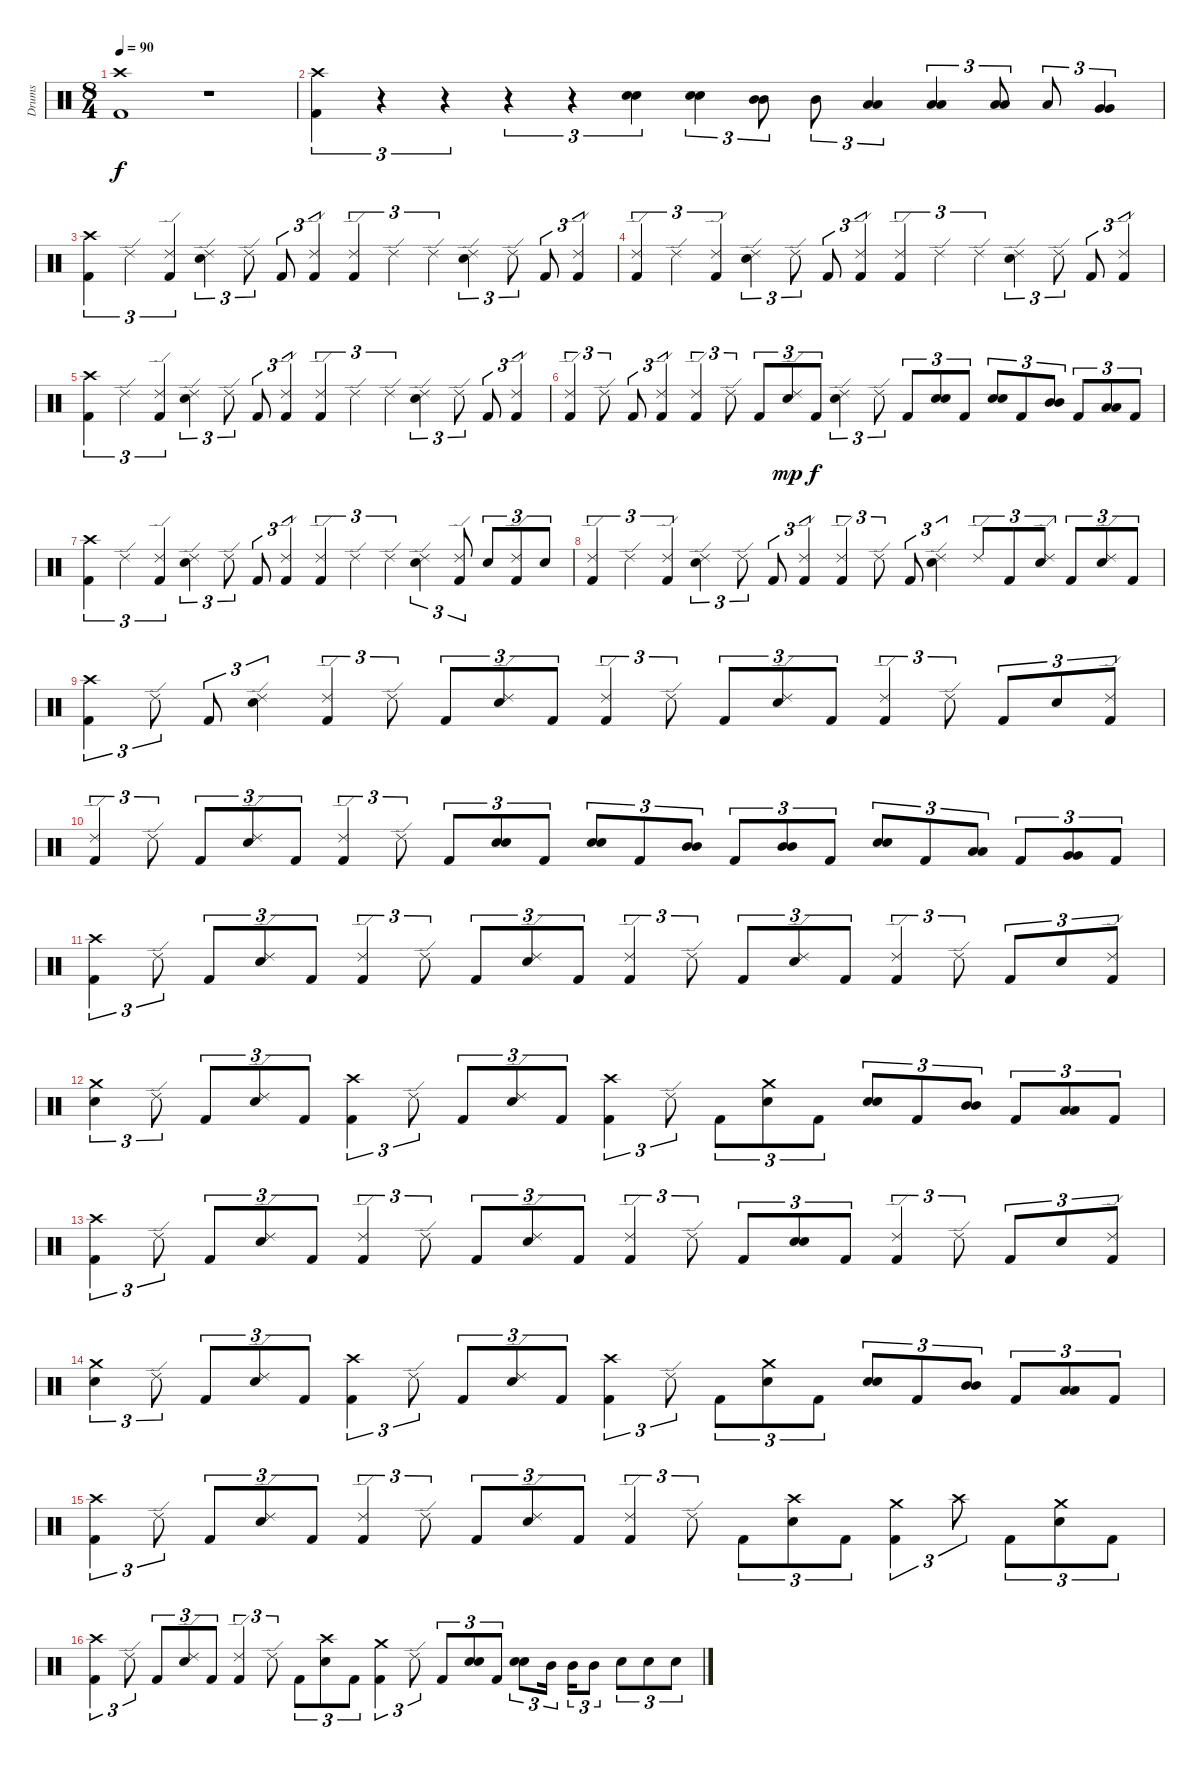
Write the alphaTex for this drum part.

\track ("Drums" "Drums") {instrument percussion}
\staff {score}
\articulation defaults
\ts (8 4)
\tempo 90
\clef neutral
\ks c
("Crash high (hit)" "Kick (hit) 2").1{dy f} r.1 |
("Crash high (hit)" "Kick (hit) 2").4{tu (3 2)} r.4{tu (3 2)} r.4{tu (3 2)} r.4{tu (3 2)} r.4{tu (3 2)} ("Electric Snare (hit)" "Electric Snare (hit)").4{tu (3 2) bu 60} ("Electric Snare (hit)" "Electric Snare (hit)").4{tu (3 2) bu 60} ("Mid Tom (hit)" "Mid Tom (hit)").8{tu (3 2) bu 60} "Mid Tom (hit)".8{tu (3 2)} ("Low Tom (hit)" "Low Tom (hit)").4{tu (3 2) bu 60} ("Low Tom (hit)" "Low Tom (hit)").4{tu (3 2) bu 60} ("Low Tom (hit)" "Low Tom (hit)").8{tu (3 2) bu 60} "Low Tom (hit)".8{tu (3 2)} ("Very Low Tom (hit)" "Very Low Tom (hit)").4{tu (3 2) bu 60} |
("Crash high (hit)" "Kick (hit) 2").4{tu (3 2)} "Ride (edge) 2".4{tu (3 2)} ("Ride (edge) 2" "Kick (hit) 2").4{tu (3 2)} ("Ride (edge) 2" "Electric Snare (hit)").4{tu (3 2)} "Ride (edge) 2".8{tu (3 2)} "Kick (hit) 2".8{tu (3 2)} ("Ride (edge) 2" "Kick (hit) 2").4{tu (3 2)} ("Ride (edge) 2" "Kick (hit) 2").4{tu (3 2)} "Ride (edge) 2".4{tu (3 2)} "Ride (edge) 2".4{tu (3 2)} ("Ride (edge) 2" "Electric Snare (hit)").4{tu (3 2)} "Ride (edge) 2".8{tu (3 2)} "Kick (hit) 2".8{tu (3 2)} ("Ride (edge) 2" "Kick (hit) 2").4{tu (3 2)} |
("Ride (edge) 2" "Kick (hit) 2").4{tu (3 2)} "Ride (edge) 2".4{tu (3 2)} ("Ride (edge) 2" "Kick (hit) 2").4{tu (3 2)} ("Ride (edge) 2" "Electric Snare (hit)").4{tu (3 2)} "Ride (edge) 2".8{tu (3 2)} "Kick (hit) 2".8{tu (3 2)} ("Ride (edge) 2" "Kick (hit) 2").4{tu (3 2)} ("Ride (edge) 2" "Kick (hit) 2").4{tu (3 2)} "Ride (edge) 2".4{tu (3 2)} "Ride (edge) 2".4{tu (3 2)} ("Ride (edge) 2" "Electric Snare (hit)").4{tu (3 2)} "Ride (edge) 2".8{tu (3 2)} "Kick (hit) 2".8{tu (3 2)} ("Ride (edge) 2" "Kick (hit) 2").4{tu (3 2)} |
("Crash high (hit)" "Kick (hit) 2").4{tu (3 2)} "Ride (edge) 2".4{tu (3 2)} ("Ride (edge) 2" "Kick (hit) 2").4{tu (3 2)} ("Ride (edge) 2" "Electric Snare (hit)").4{tu (3 2)} "Ride (edge) 2".8{tu (3 2)} "Kick (hit) 2".8{tu (3 2)} ("Ride (edge) 2" "Kick (hit) 2").4{tu (3 2)} ("Ride (edge) 2" "Kick (hit) 2").4{tu (3 2)} "Ride (edge) 2".4{tu (3 2)} "Ride (edge) 2".4{tu (3 2)} ("Ride (edge) 2" "Electric Snare (hit)").4{tu (3 2)} "Ride (edge) 2".8{tu (3 2)} "Kick (hit) 2".8{tu (3 2)} ("Ride (edge) 2" "Kick (hit) 2").4{tu (3 2)} |
("Ride (edge) 2" "Kick (hit) 2").4{tu (3 2)} "Ride (edge) 2".8{tu (3 2)} "Kick (hit) 2".8{tu (3 2)} ("Ride (edge) 2" "Kick (hit) 2").4{tu (3 2)} ("Ride (edge) 2" "Kick (hit) 2").4{tu (3 2)} "Ride (edge) 2".8{tu (3 2)} "Kick (hit) 2".8{tu (3 2)} ("Ride (edge) 2" "Electric Snare (hit)").8{tu (3 2) dy mp} "Kick (hit) 2".8{tu (3 2) dy f} ("Ride (edge) 2" "Electric Snare (hit)").4{tu (3 2)} "Ride (edge) 2".8{tu (3 2)} "Kick (hit) 2".8{tu (3 2)} ("Electric Snare (hit)" "Electric Snare (hit)").8{tu (3 2) bu 60} "Kick (hit) 2".8{tu (3 2)} ("Electric Snare (hit)" "Electric Snare (hit)").8{tu (3 2) bu 60} "Kick (hit) 2".8{tu (3 2)} ("Mid Tom (hit)" "Mid Tom (hit)").8{tu (3 2) bu 60} "Kick (hit) 2".8{tu (3 2)} ("Low Tom (hit)" "Low Tom (hit)").8{tu (3 2) bu 60} "Kick (hit) 2".8{tu (3 2)} |
("Crash high (hit)" "Kick (hit) 2").4{tu (3 2)} "Ride (edge) 2".4{tu (3 2)} ("Ride (edge) 2" "Kick (hit) 2").4{tu (3 2)} ("Ride (edge) 2" "Electric Snare (hit)").4{tu (3 2)} "Ride (edge) 2".8{tu (3 2)} "Kick (hit) 2".8{tu (3 2)} ("Ride (edge) 2" "Kick (hit) 2").4{tu (3 2)} ("Ride (edge) 2" "Kick (hit) 2").4{tu (3 2)} "Ride (edge) 2".4{tu (3 2)} "Ride (edge) 2".4{tu (3 2)} ("Ride (edge) 2" "Electric Snare (hit)").4{tu (3 2)} ("Ride (edge) 2" "Kick (hit) 2").8{tu (3 2)} "Electric Snare (hit)".8{tu (3 2)} ("Ride (edge) 2" "Kick (hit) 2").8{tu (3 2)} "Electric Snare (hit)".8{tu (3 2)} |
("Ride (edge) 2" "Kick (hit) 2").4{tu (3 2)} "Ride (edge) 2".4{tu (3 2)} ("Ride (edge) 2" "Kick (hit) 2").4{tu (3 2)} ("Ride (edge) 2" "Electric Snare (hit)").4{tu (3 2)} "Ride (edge) 2".8{tu (3 2)} "Kick (hit) 2".8{tu (3 2)} ("Ride (edge) 2" "Kick (hit) 2").4{tu (3 2)} ("Ride (edge) 2" "Kick (hit) 2").4{tu (3 2)} "Ride (edge) 2".8{tu (3 2)} "Kick (hit) 2".8{tu (3 2)} ("Ride (edge) 2" "Electric Snare (hit)").4{tu (3 2)} "Ride (edge) 2".8{tu (3 2)} "Kick (hit) 2".8{tu (3 2)} ("Ride (edge) 2" "Electric Snare (hit)").8{tu (3 2)} "Kick (hit) 2".8{tu (3 2)} ("Ride (edge) 2" "Electric Snare (hit)").8{tu (3 2)} "Kick (hit) 2".8{tu (3 2)} |
("Crash high (hit)" "Kick (hit) 2").4{tu (3 2)} "Ride (edge) 2".8{tu (3 2)} "Kick (hit) 2".8{tu (3 2)} ("Ride (edge) 2" "Electric Snare (hit)").4{tu (3 2)} ("Ride (edge) 2" "Kick (hit) 2").4{tu (3 2)} "Ride (edge) 2".8{tu (3 2)} "Kick (hit) 2".8{tu (3 2)} ("Ride (edge) 2" "Electric Snare (hit)").8{tu (3 2)} "Kick (hit) 2".8{tu (3 2)} ("Ride (edge) 2" "Kick (hit) 2").4{tu (3 2)} "Ride (edge) 2".8{tu (3 2)} "Kick (hit) 2".8{tu (3 2)} ("Ride (edge) 2" "Electric Snare (hit)").8{tu (3 2)} "Kick (hit) 2".8{tu (3 2)} ("Ride (edge) 2" "Kick (hit) 2").4{tu (3 2)} "Ride (edge) 2".8{tu (3 2)} "Kick (hit) 2".8{tu (3 2)} "Electric Snare (hit)".8{tu (3 2)} ("Ride (edge) 2" "Kick (hit) 2").8{tu (3 2)} |
("Ride (edge) 2" "Kick (hit) 2").4{tu (3 2)} "Ride (edge) 2".8{tu (3 2)} "Kick (hit) 2".8{tu (3 2)} ("Ride (edge) 2" "Electric Snare (hit)").8{tu (3 2)} "Kick (hit) 2".8{tu (3 2)} ("Ride (edge) 2" "Kick (hit) 2").4{tu (3 2)} "Ride (edge) 2".8{tu (3 2)} "Kick (hit) 2".8{tu (3 2)} ("Electric Snare (hit)" "Electric Snare (hit)").8{tu (3 2) bu 60} "Kick (hit) 2".8{tu (3 2)} ("Electric Snare (hit)" "Electric Snare (hit)").8{tu (3 2) bu 60} "Kick (hit) 2".8{tu (3 2)} ("Mid Tom (hit)" "Mid Tom (hit)").8{tu (3 2) bu 60} "Kick (hit) 2".8{tu (3 2)} ("Mid Tom (hit)" "Mid Tom (hit)").8{tu (3 2) bu 60} "Kick (hit) 2".8{tu (3 2)} ("Electric Snare (hit)" "Electric Snare (hit)").8{tu (3 2) bu 60} "Kick (hit) 2".8{tu (3 2)} ("Low Tom (hit)" "Low Tom (hit)").8{tu (3 2) bu 60} "Kick (hit) 2".8{tu (3 2)} ("Very Low Tom (hit)" "Very Low Tom (hit)").8{tu (3 2) bu 60} "Kick (hit) 2".8{tu (3 2)} |
("Crash high (hit)" "Kick (hit) 2").4{tu (3 2)} "Ride (edge) 2".8{tu (3 2)} "Kick (hit) 2".8{tu (3 2)} ("Ride (edge) 2" "Electric Snare (hit)").8{tu (3 2)} "Kick (hit) 2".8{tu (3 2)} ("Ride (edge) 2" "Kick (hit) 2").4{tu (3 2)} "Ride (edge) 2".8{tu (3 2)} "Kick (hit) 2".8{tu (3 2)} ("Ride (edge) 2" "Electric Snare (hit)").8{tu (3 2)} "Kick (hit) 2".8{tu (3 2)} ("Ride (edge) 2" "Kick (hit) 2").4{tu (3 2)} "Ride (edge) 2".8{tu (3 2)} "Kick (hit) 2".8{tu (3 2)} ("Ride (edge) 2" "Electric Snare (hit)").8{tu (3 2)} "Kick (hit) 2".8{tu (3 2)} ("Ride (edge) 2" "Kick (hit) 2").4{tu (3 2)} "Ride (edge) 2".8{tu (3 2)} "Kick (hit) 2".8{tu (3 2)} "Electric Snare (hit)".8{tu (3 2)} ("Ride (edge) 2" "Kick (hit) 2").8{tu (3 2)} |
("Crash medium (hit)" "Electric Snare (hit)").4{tu (3 2)} "Ride (edge) 2".8{tu (3 2)} "Kick (hit) 2".8{tu (3 2)} ("Ride (edge) 2" "Electric Snare (hit)").8{tu (3 2)} "Kick (hit) 2".8{tu (3 2)} ("Crash high (hit)" "Kick (hit) 2").4{tu (3 2)} "Ride (edge) 2".8{tu (3 2)} "Kick (hit) 2".8{tu (3 2)} ("Ride (edge) 2" "Electric Snare (hit)").8{tu (3 2)} "Kick (hit) 2".8{tu (3 2)} ("Crash high (hit)" "Kick (hit) 2").4{tu (3 2)} "Ride (edge) 2".8{tu (3 2)} "Kick (hit) 2".8{tu (3 2)} ("Crash medium (hit)" "Electric Snare (hit)").8{tu (3 2)} "Kick (hit) 2".8{tu (3 2)} ("Electric Snare (hit)" "Electric Snare (hit)").8{tu (3 2) bu 60} "Kick (hit) 2".8{tu (3 2)} ("Mid Tom (hit)" "Mid Tom (hit)").8{tu (3 2) bu 60} "Kick (hit) 2".8{tu (3 2)} ("Low Tom (hit)" "Low Tom (hit)").8{tu (3 2) bu 60} "Kick (hit) 2".8{tu (3 2)} |
("Crash high (hit)" "Kick (hit) 2").4{tu (3 2)} "Ride (edge) 2".8{tu (3 2)} "Kick (hit) 2".8{tu (3 2)} ("Ride (edge) 2" "Electric Snare (hit)").8{tu (3 2)} "Kick (hit) 2".8{tu (3 2)} ("Ride (edge) 2" "Kick (hit) 2").4{tu (3 2)} "Ride (edge) 2".8{tu (3 2)} "Kick (hit) 2".8{tu (3 2)} ("Ride (edge) 2" "Electric Snare (hit)").8{tu (3 2)} "Kick (hit) 2".8{tu (3 2)} ("Ride (edge) 2" "Kick (hit) 2").4{tu (3 2)} "Ride (edge) 2".8{tu (3 2)} "Kick (hit) 2".8{tu (3 2)} ("Electric Snare (hit)" "Electric Snare (hit)").8{tu (3 2) bu 60} "Kick (hit) 2".8{tu (3 2)} ("Ride (edge) 2" "Kick (hit) 2").4{tu (3 2)} "Ride (edge) 2".8{tu (3 2)} "Kick (hit) 2".8{tu (3 2)} "Electric Snare (hit)".8{tu (3 2)} ("Ride (edge) 2" "Kick (hit) 2").8{tu (3 2)} |
("Crash medium (hit)" "Electric Snare (hit)").4{tu (3 2)} "Ride (edge) 2".8{tu (3 2)} "Kick (hit) 2".8{tu (3 2)} ("Ride (edge) 2" "Electric Snare (hit)").8{tu (3 2)} "Kick (hit) 2".8{tu (3 2)} ("Crash high (hit)" "Kick (hit) 2").4{tu (3 2)} "Ride (edge) 2".8{tu (3 2)} "Kick (hit) 2".8{tu (3 2)} ("Ride (edge) 2" "Electric Snare (hit)").8{tu (3 2)} "Kick (hit) 2".8{tu (3 2)} ("Crash high (hit)" "Kick (hit) 2").4{tu (3 2)} "Ride (edge) 2".8{tu (3 2)} "Kick (hit) 2".8{tu (3 2)} ("Crash medium (hit)" "Electric Snare (hit)").8{tu (3 2)} "Kick (hit) 2".8{tu (3 2)} ("Electric Snare (hit)" "Electric Snare (hit)").8{tu (3 2) bu 60} "Kick (hit) 2".8{tu (3 2)} ("Mid Tom (hit)" "Mid Tom (hit)").8{tu (3 2) bu 60} "Kick (hit) 2".8{tu (3 2)} ("Low Tom (hit)" "Low Tom (hit)").8{tu (3 2) bu 60} "Kick (hit) 2".8{tu (3 2)} |
("Crash high (hit)" "Kick (hit) 2").4{tu (3 2)} "Ride (edge) 2".8{tu (3 2)} "Kick (hit) 2".8{tu (3 2)} ("Ride (edge) 2" "Electric Snare (hit)").8{tu (3 2)} "Kick (hit) 2".8{tu (3 2)} ("Ride (edge) 2" "Kick (hit) 2").4{tu (3 2)} "Ride (edge) 2".8{tu (3 2)} "Kick (hit) 2".8{tu (3 2)} ("Ride (edge) 2" "Electric Snare (hit)").8{tu (3 2)} "Kick (hit) 2".8{tu (3 2)} ("Ride (edge) 2" "Kick (hit) 2").4{tu (3 2)} "Ride (edge) 2".8{tu (3 2)} "Kick (hit) 2".8{tu (3 2)} ("Crash high (hit)" "Electric Snare (hit)").8{tu (3 2)} "Kick (hit) 2".8{tu (3 2)} ("Crash medium (hit)" "Kick (hit) 2").4{tu (3 2)} "Crash high (hit)".8{tu (3 2)} "Kick (hit) 2".8{tu (3 2)} ("Crash medium (hit)" "Electric Snare (hit)").8{tu (3 2)} "Kick (hit) 2".8{tu (3 2)} |
("Crash high (hit)" "Kick (hit) 2").4{tu (3 2)} "Ride (edge) 2".8{tu (3 2)} "Kick (hit) 2".8{tu (3 2)} ("Ride (edge) 2" "Electric Snare (hit)").8{tu (3 2)} "Kick (hit) 2".8{tu (3 2)} ("Ride (edge) 2" "Kick (hit) 2").4{tu (3 2)} "Ride (edge) 2".8{tu (3 2)} "Kick (hit) 2".8{tu (3 2)} ("Crash high (hit)" "Electric Snare (hit)").8{tu (3 2)} "Kick (hit) 2".8{tu (3 2)} ("Crash medium (hit)" "Kick (hit) 2").4{tu (3 2)} "Ride (edge) 2".8{tu (3 2)} "Kick (hit) 2".8{tu (3 2)} ("Electric Snare (hit)" "Electric Snare (hit)").8{tu (3 2) bu 60} "Kick (hit) 2".8{tu (3 2)} ("Electric Snare (hit)" "Electric Snare (hit)").8{tu (3 2) bu 60} "Mid Tom (hit)".16{tu (3 2)} "Mid Tom (hit)".16{tu (3 2)} "Mid Tom (hit)".8{tu (3 2)} "Electric Snare (hit)".8{tu (3 2)} "Electric Snare (hit)".8{tu (3 2)} "Electric Snare (hit)".8{tu (3 2)}
